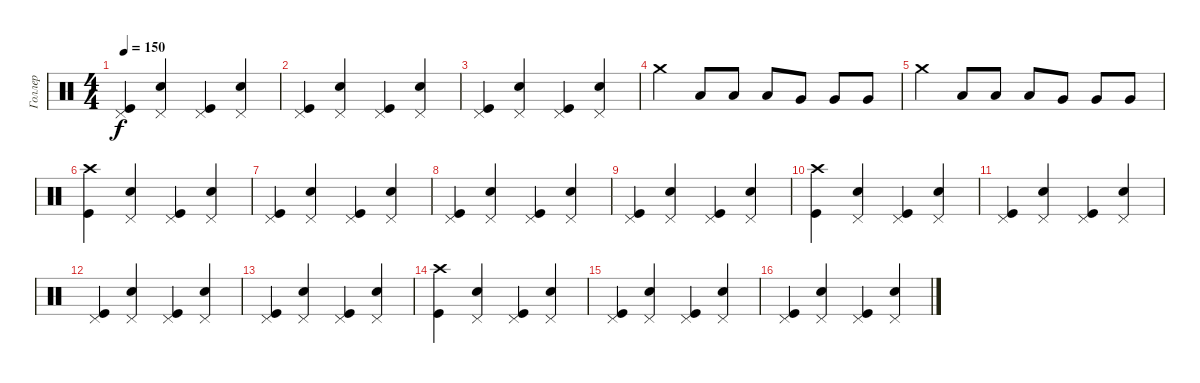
\track ("Голлер" "Голлер") {instrument percussion}
\staff {score}
\articulation defaults
\ts (4 4)
\tempo 150
\clef neutral
\ks c
("Pedal Hi-Hat (hit)" "Kick (hit)").4{dy f} ("Pedal Hi-Hat (hit)" "Snare (hit) 2").4 ("Pedal Hi-Hat (hit)" "Kick (hit)").4 ("Pedal Hi-Hat (hit)" "Snare (hit) 2").4 |
("Pedal Hi-Hat (hit)" "Kick (hit)").4 ("Pedal Hi-Hat (hit)" "Snare (hit) 2").4 ("Pedal Hi-Hat (hit)" "Kick (hit)").4 ("Pedal Hi-Hat (hit)" "Snare (hit) 2").4 |
("Pedal Hi-Hat (hit)" "Kick (hit)").4 ("Pedal Hi-Hat (hit)" "Snare (hit) 2").4 ("Pedal Hi-Hat (hit)" "Kick (hit)").4 ("Pedal Hi-Hat (hit)" "Snare (hit) 2").4 |
"Crash medium (hit)".4 "Low Floor Tom (hit)".8 "Low Floor Tom (hit)".8 "Low Floor Tom (hit)".8 "Very Low Tom (hit)".8 "Very Low Tom (hit)".8 "Very Low Tom (hit)".8 |
"Crash medium (hit)".4 "Low Floor Tom (hit)".8 "Low Floor Tom (hit)".8 "Low Floor Tom (hit)".8 "Very Low Tom (hit)".8 "Very Low Tom (hit)".8 "Very Low Tom (hit)".8 |
("Crash high (hit)" "Kick (hit)").4 ("Pedal Hi-Hat (hit)" "Snare (hit) 2").4 ("Pedal Hi-Hat (hit)" "Kick (hit)").4 ("Pedal Hi-Hat (hit)" "Snare (hit) 2").4 |
("Pedal Hi-Hat (hit)" "Kick (hit)").4 ("Pedal Hi-Hat (hit)" "Snare (hit) 2").4 ("Pedal Hi-Hat (hit)" "Kick (hit)").4 ("Pedal Hi-Hat (hit)" "Snare (hit) 2").4 |
("Pedal Hi-Hat (hit)" "Kick (hit)").4 ("Pedal Hi-Hat (hit)" "Snare (hit) 2").4 ("Pedal Hi-Hat (hit)" "Kick (hit)").4 ("Pedal Hi-Hat (hit)" "Snare (hit) 2").4 |
("Pedal Hi-Hat (hit)" "Kick (hit)").4 ("Pedal Hi-Hat (hit)" "Snare (hit) 2").4 ("Pedal Hi-Hat (hit)" "Kick (hit)").4 ("Pedal Hi-Hat (hit)" "Snare (hit) 2").4 |
("Crash high (hit)" "Kick (hit)").4 ("Pedal Hi-Hat (hit)" "Snare (hit) 2").4 ("Pedal Hi-Hat (hit)" "Kick (hit)").4 ("Pedal Hi-Hat (hit)" "Snare (hit) 2").4 |
("Pedal Hi-Hat (hit)" "Kick (hit)").4 ("Pedal Hi-Hat (hit)" "Snare (hit) 2").4 ("Pedal Hi-Hat (hit)" "Kick (hit)").4 ("Pedal Hi-Hat (hit)" "Snare (hit) 2").4 |
("Pedal Hi-Hat (hit)" "Kick (hit)").4 ("Pedal Hi-Hat (hit)" "Snare (hit) 2").4 ("Pedal Hi-Hat (hit)" "Kick (hit)").4 ("Pedal Hi-Hat (hit)" "Snare (hit) 2").4 |
("Pedal Hi-Hat (hit)" "Kick (hit)").4 ("Pedal Hi-Hat (hit)" "Snare (hit) 2").4 ("Pedal Hi-Hat (hit)" "Kick (hit)").4 ("Pedal Hi-Hat (hit)" "Snare (hit) 2").4 |
("Crash high (hit)" "Kick (hit)").4 ("Pedal Hi-Hat (hit)" "Snare (hit) 2").4 ("Pedal Hi-Hat (hit)" "Kick (hit)").4 ("Pedal Hi-Hat (hit)" "Snare (hit) 2").4 |
("Pedal Hi-Hat (hit)" "Kick (hit)").4 ("Pedal Hi-Hat (hit)" "Snare (hit) 2").4 ("Pedal Hi-Hat (hit)" "Kick (hit)").4 ("Pedal Hi-Hat (hit)" "Snare (hit) 2").4 |
("Pedal Hi-Hat (hit)" "Kick (hit)").4 ("Pedal Hi-Hat (hit)" "Snare (hit) 2").4 ("Pedal Hi-Hat (hit)" "Kick (hit)").4 ("Pedal Hi-Hat (hit)" "Snare (hit) 2").4
